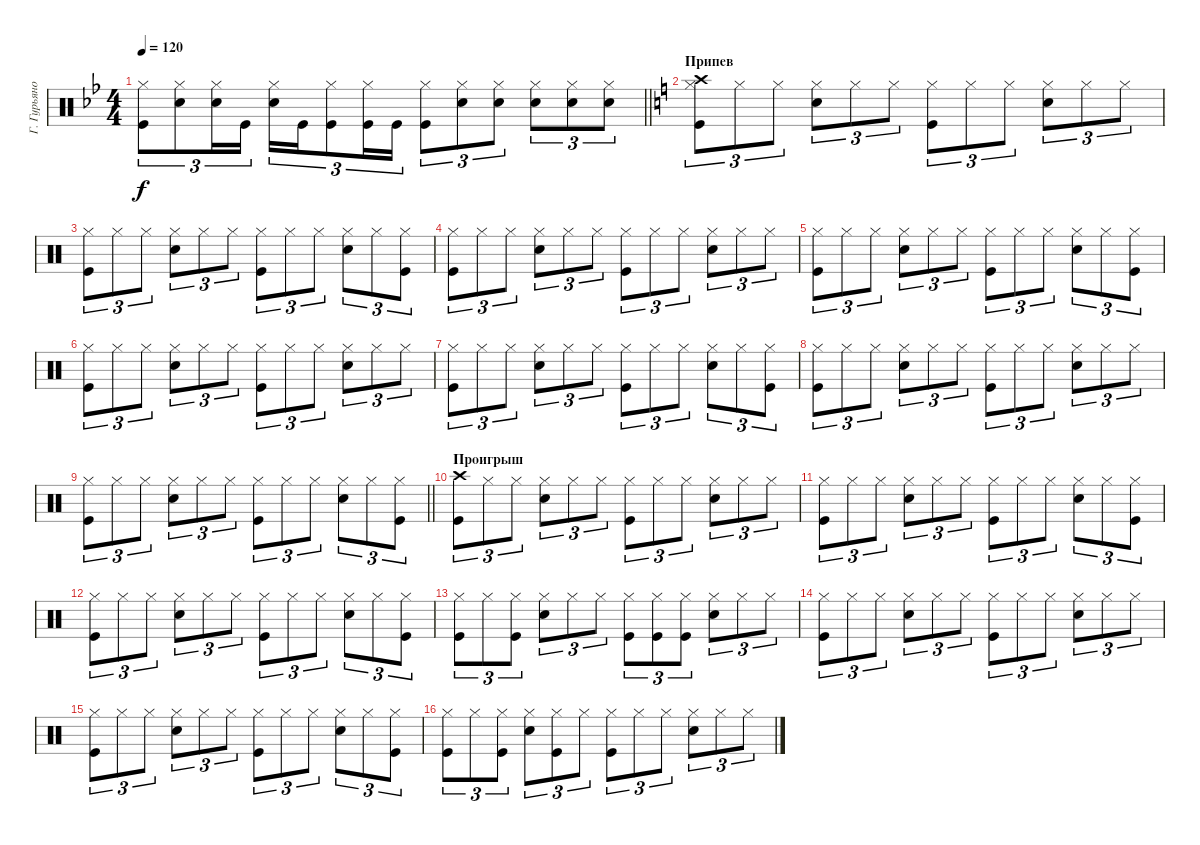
\track ("Г. Гурьянов" "Г. Гурьяно") {instrument percussion}
\staff
\articulation defaults
\ts (4 4)
\tempo 120
\clef neutral
\barLineRight lightlight
\ks gminor
("Hi-Hat (closed)" "Kick (hit)").8{tu (3 2) dy f} ("Hi-Hat (closed)" "Snare (hit) 2").8{tu (3 2)} ("Hi-Hat (closed)" "Snare (hit) 2").16{tu (3 2)} "Kick (hit)".16{tu (3 2)} ("Hi-Hat (closed)" "Snare (hit) 2").16{tu (3 2)} "Kick (hit)".16{tu (3 2)} ("Hi-Hat (closed)" "Kick (hit)").8{tu (3 2)} ("Hi-Hat (closed)" "Kick (hit)").16{tu (3 2)} "Kick (hit)".16{tu (3 2)} ("Hi-Hat (closed)" "Kick (hit)").8{tu (3 2)} ("Hi-Hat (closed)" "Snare (hit) 2").8{tu (3 2)} ("Hi-Hat (closed)" "Snare (hit) 2").8{tu (3 2)} ("Hi-Hat (closed)" "Snare (hit) 2").8{tu (3 2)} ("Hi-Hat (closed)" "Snare (hit) 2").8{tu (3 2)} ("Hi-Hat (closed)" "Snare (hit) 2").8{tu (3 2)} |
\section ("" "Припев")
\ks c
("Hi-Hat (closed)" "Crash high (hit)" "Kick (hit)").8{tu (3 2)} "Hi-Hat (closed)".8{tu (3 2)} "Hi-Hat (closed)".8{tu (3 2)} ("Hi-Hat (closed)" "Snare (hit) 2").8{tu (3 2)} "Hi-Hat (closed)".8{tu (3 2)} "Hi-Hat (closed)".8{tu (3 2)} ("Hi-Hat (closed)" "Kick (hit)").8{tu (3 2)} "Hi-Hat (closed)".8{tu (3 2)} "Hi-Hat (closed)".8{tu (3 2)} ("Hi-Hat (closed)" "Snare (hit) 2").8{tu (3 2)} "Hi-Hat (closed)".8{tu (3 2)} "Hi-Hat (closed)".8{tu (3 2)} |
("Hi-Hat (closed)" "Kick (hit)").8{tu (3 2)} "Hi-Hat (closed)".8{tu (3 2)} "Hi-Hat (closed)".8{tu (3 2)} ("Hi-Hat (closed)" "Snare (hit) 2").8{tu (3 2)} "Hi-Hat (closed)".8{tu (3 2)} "Hi-Hat (closed)".8{tu (3 2)} ("Hi-Hat (closed)" "Kick (hit)").8{tu (3 2)} "Hi-Hat (closed)".8{tu (3 2)} "Hi-Hat (closed)".8{tu (3 2)} ("Hi-Hat (closed)" "Snare (hit) 2").8{tu (3 2)} "Hi-Hat (closed)".8{tu (3 2)} ("Hi-Hat (closed)" "Kick (hit)").8{tu (3 2)} |
("Hi-Hat (closed)" "Kick (hit)").8{tu (3 2)} "Hi-Hat (closed)".8{tu (3 2)} "Hi-Hat (closed)".8{tu (3 2)} ("Hi-Hat (closed)" "Snare (hit) 2").8{tu (3 2)} "Hi-Hat (closed)".8{tu (3 2)} "Hi-Hat (closed)".8{tu (3 2)} ("Hi-Hat (closed)" "Kick (hit)").8{tu (3 2)} "Hi-Hat (closed)".8{tu (3 2)} "Hi-Hat (closed)".8{tu (3 2)} ("Hi-Hat (closed)" "Snare (hit) 2").8{tu (3 2)} "Hi-Hat (closed)".8{tu (3 2)} "Hi-Hat (closed)".8{tu (3 2)} |
("Hi-Hat (closed)" "Kick (hit)").8{tu (3 2)} "Hi-Hat (closed)".8{tu (3 2)} "Hi-Hat (closed)".8{tu (3 2)} ("Hi-Hat (closed)" "Snare (hit) 2").8{tu (3 2)} "Hi-Hat (closed)".8{tu (3 2)} "Hi-Hat (closed)".8{tu (3 2)} ("Hi-Hat (closed)" "Kick (hit)").8{tu (3 2)} "Hi-Hat (closed)".8{tu (3 2)} "Hi-Hat (closed)".8{tu (3 2)} ("Hi-Hat (closed)" "Snare (hit) 2").8{tu (3 2)} "Hi-Hat (closed)".8{tu (3 2)} ("Hi-Hat (closed)" "Kick (hit)").8{tu (3 2)} |
("Hi-Hat (closed)" "Kick (hit)").8{tu (3 2)} "Hi-Hat (closed)".8{tu (3 2)} "Hi-Hat (closed)".8{tu (3 2)} ("Hi-Hat (closed)" "Snare (hit) 2").8{tu (3 2)} "Hi-Hat (closed)".8{tu (3 2)} "Hi-Hat (closed)".8{tu (3 2)} ("Hi-Hat (closed)" "Kick (hit)").8{tu (3 2)} "Hi-Hat (closed)".8{tu (3 2)} "Hi-Hat (closed)".8{tu (3 2)} ("Hi-Hat (closed)" "Snare (hit) 2").8{tu (3 2)} "Hi-Hat (closed)".8{tu (3 2)} "Hi-Hat (closed)".8{tu (3 2)} |
("Hi-Hat (closed)" "Kick (hit)").8{tu (3 2)} "Hi-Hat (closed)".8{tu (3 2)} "Hi-Hat (closed)".8{tu (3 2)} ("Hi-Hat (closed)" "Snare (hit) 2").8{tu (3 2)} "Hi-Hat (closed)".8{tu (3 2)} "Hi-Hat (closed)".8{tu (3 2)} ("Hi-Hat (closed)" "Kick (hit)").8{tu (3 2)} "Hi-Hat (closed)".8{tu (3 2)} "Hi-Hat (closed)".8{tu (3 2)} ("Hi-Hat (closed)" "Snare (hit) 2").8{tu (3 2)} "Hi-Hat (closed)".8{tu (3 2)} ("Hi-Hat (closed)" "Kick (hit)").8{tu (3 2)} |
("Hi-Hat (closed)" "Kick (hit)").8{tu (3 2)} "Hi-Hat (closed)".8{tu (3 2)} "Hi-Hat (closed)".8{tu (3 2)} ("Hi-Hat (closed)" "Snare (hit) 2").8{tu (3 2)} "Hi-Hat (closed)".8{tu (3 2)} "Hi-Hat (closed)".8{tu (3 2)} ("Hi-Hat (closed)" "Kick (hit)").8{tu (3 2)} "Hi-Hat (closed)".8{tu (3 2)} "Hi-Hat (closed)".8{tu (3 2)} ("Hi-Hat (closed)" "Snare (hit) 2").8{tu (3 2)} "Hi-Hat (closed)".8{tu (3 2)} "Hi-Hat (closed)".8{tu (3 2)} |
\barLineRight lightlight
("Hi-Hat (closed)" "Kick (hit)").8{tu (3 2)} "Hi-Hat (closed)".8{tu (3 2)} "Hi-Hat (closed)".8{tu (3 2)} ("Hi-Hat (closed)" "Snare (hit) 2").8{tu (3 2)} "Hi-Hat (closed)".8{tu (3 2)} "Hi-Hat (closed)".8{tu (3 2)} ("Hi-Hat (closed)" "Kick (hit)").8{tu (3 2)} "Hi-Hat (closed)".8{tu (3 2)} "Hi-Hat (closed)".8{tu (3 2)} ("Hi-Hat (closed)" "Snare (hit) 2").8{tu (3 2)} "Hi-Hat (closed)".8{tu (3 2)} ("Hi-Hat (closed)" "Kick (hit)").8{tu (3 2)} |
\section ("" "Проигрыш")
("Kick (hit)" "Crash high (hit)").8{tu (3 2)} "Hi-Hat (closed)".8{tu (3 2)} "Hi-Hat (closed)".8{tu (3 2)} ("Hi-Hat (closed)" "Snare (hit) 2").8{tu (3 2)} "Hi-Hat (closed)".8{tu (3 2)} "Hi-Hat (closed)".8{tu (3 2)} ("Hi-Hat (closed)" "Kick (hit)").8{tu (3 2)} "Hi-Hat (closed)".8{tu (3 2)} "Hi-Hat (closed)".8{tu (3 2)} ("Hi-Hat (closed)" "Snare (hit) 2").8{tu (3 2)} "Hi-Hat (closed)".8{tu (3 2)} "Hi-Hat (closed)".8{tu (3 2)} |
("Hi-Hat (closed)" "Kick (hit)").8{tu (3 2)} "Hi-Hat (closed)".8{tu (3 2)} "Hi-Hat (closed)".8{tu (3 2)} ("Hi-Hat (closed)" "Snare (hit) 2").8{tu (3 2)} "Hi-Hat (closed)".8{tu (3 2)} "Hi-Hat (closed)".8{tu (3 2)} ("Hi-Hat (closed)" "Kick (hit)").8{tu (3 2)} "Hi-Hat (closed)".8{tu (3 2)} "Hi-Hat (closed)".8{tu (3 2)} ("Hi-Hat (closed)" "Snare (hit) 2").8{tu (3 2)} "Hi-Hat (closed)".8{tu (3 2)} ("Hi-Hat (closed)" "Kick (hit)").8{tu (3 2)} |
("Hi-Hat (closed)" "Kick (hit)").8{tu (3 2)} "Hi-Hat (closed)".8{tu (3 2)} "Hi-Hat (closed)".8{tu (3 2)} ("Hi-Hat (closed)" "Snare (hit) 2").8{tu (3 2)} "Hi-Hat (closed)".8{tu (3 2)} "Hi-Hat (closed)".8{tu (3 2)} ("Hi-Hat (closed)" "Kick (hit)").8{tu (3 2)} "Hi-Hat (closed)".8{tu (3 2)} "Hi-Hat (closed)".8{tu (3 2)} ("Hi-Hat (closed)" "Snare (hit) 2").8{tu (3 2)} "Hi-Hat (closed)".8{tu (3 2)} ("Hi-Hat (closed)" "Kick (hit)").8{tu (3 2)} |
("Hi-Hat (closed)" "Kick (hit)").8{tu (3 2)} "Hi-Hat (closed)".8{tu (3 2)} ("Hi-Hat (closed)" "Kick (hit)").8{tu (3 2)} ("Hi-Hat (closed)" "Snare (hit) 2").8{tu (3 2)} "Hi-Hat (closed)".8{tu (3 2)} "Hi-Hat (closed)".8{tu (3 2)} ("Hi-Hat (closed)" "Kick (hit)").8{tu (3 2)} ("Hi-Hat (closed)" "Kick (hit)").8{tu (3 2)} ("Hi-Hat (closed)" "Kick (hit)").8{tu (3 2)} ("Hi-Hat (closed)" "Snare (hit) 2").8{tu (3 2)} "Hi-Hat (closed)".8{tu (3 2)} "Hi-Hat (closed)".8{tu (3 2)} |
("Hi-Hat (closed)" "Kick (hit)").8{tu (3 2)} "Hi-Hat (closed)".8{tu (3 2)} "Hi-Hat (closed)".8{tu (3 2)} ("Hi-Hat (closed)" "Snare (hit) 2").8{tu (3 2)} "Hi-Hat (closed)".8{tu (3 2)} "Hi-Hat (closed)".8{tu (3 2)} ("Hi-Hat (closed)" "Kick (hit)").8{tu (3 2)} "Hi-Hat (closed)".8{tu (3 2)} "Hi-Hat (closed)".8{tu (3 2)} ("Hi-Hat (closed)" "Snare (hit) 2").8{tu (3 2)} "Hi-Hat (closed)".8{tu (3 2)} "Hi-Hat (closed)".8{tu (3 2)} |
("Hi-Hat (closed)" "Kick (hit)").8{tu (3 2)} "Hi-Hat (closed)".8{tu (3 2)} "Hi-Hat (closed)".8{tu (3 2)} ("Hi-Hat (closed)" "Snare (hit) 2").8{tu (3 2)} "Hi-Hat (closed)".8{tu (3 2)} "Hi-Hat (closed)".8{tu (3 2)} ("Hi-Hat (closed)" "Kick (hit)").8{tu (3 2)} "Hi-Hat (closed)".8{tu (3 2)} "Hi-Hat (closed)".8{tu (3 2)} ("Hi-Hat (closed)" "Snare (hit) 2").8{tu (3 2)} "Hi-Hat (closed)".8{tu (3 2)} ("Hi-Hat (closed)" "Kick (hit)").8{tu (3 2)} |
("Hi-Hat (closed)" "Kick (hit)").8{tu (3 2)} "Hi-Hat (closed)".8{tu (3 2)} ("Hi-Hat (closed)" "Kick (hit)").8{tu (3 2)} ("Hi-Hat (closed)" "Snare (hit) 2").8{tu (3 2)} ("Hi-Hat (closed)" "Kick (hit)").8{tu (3 2)} "Hi-Hat (closed)".8{tu (3 2)} ("Hi-Hat (closed)" "Kick (hit)").8{tu (3 2)} "Hi-Hat (closed)".8{tu (3 2)} "Hi-Hat (closed)".8{tu (3 2)} ("Hi-Hat (closed)" "Snare (hit) 2").8{tu (3 2)} "Hi-Hat (closed)".8{tu (3 2)} "Hi-Hat (closed)".8{tu (3 2)}
